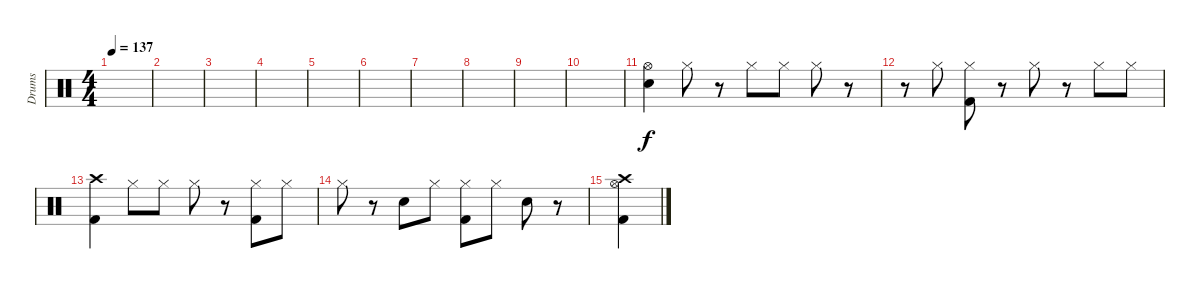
\track ("Drums" "Drums") {instrument percussion}
\staff {score}
\articulation defaults
\ts (4 4)
\tempo 137
\clef neutral
\ks c
|
|
|
|
|
|
|
|
|
|
("Snare (hit) 2" "Hi-Hat (open)").4 "Hi-Hat (closed)".8 r.8 "Hi-Hat (closed)".8 "Hi-Hat (closed)".8 "Hi-Hat (closed)".8 r.8 |
r.8 "Hi-Hat (closed)".8 ("Kick (hit) 2" "Hi-Hat (closed)").8 r.8 "Hi-Hat (closed)".8 r.8 "Hi-Hat (closed)".8 "Hi-Hat (closed)".8 |
("Kick (hit) 2" "Crash high (hit)").4 "Hi-Hat (closed)".8 "Hi-Hat (closed)".8 "Hi-Hat (closed)".8 r.8 ("Kick (hit) 2" "Hi-Hat (closed)").8 "Hi-Hat (closed)".8 |
"Hi-Hat (closed)".8 r.8 "Snare (hit) 2".8 "Hi-Hat (closed)".8 ("Kick (hit) 2" "Hi-Hat (closed)").8 "Hi-Hat (closed)".8 "Snare (hit) 2".8 r.8 |
("Kick (hit) 2" "Hi-Hat (open)" "Crash high (hit)").4
